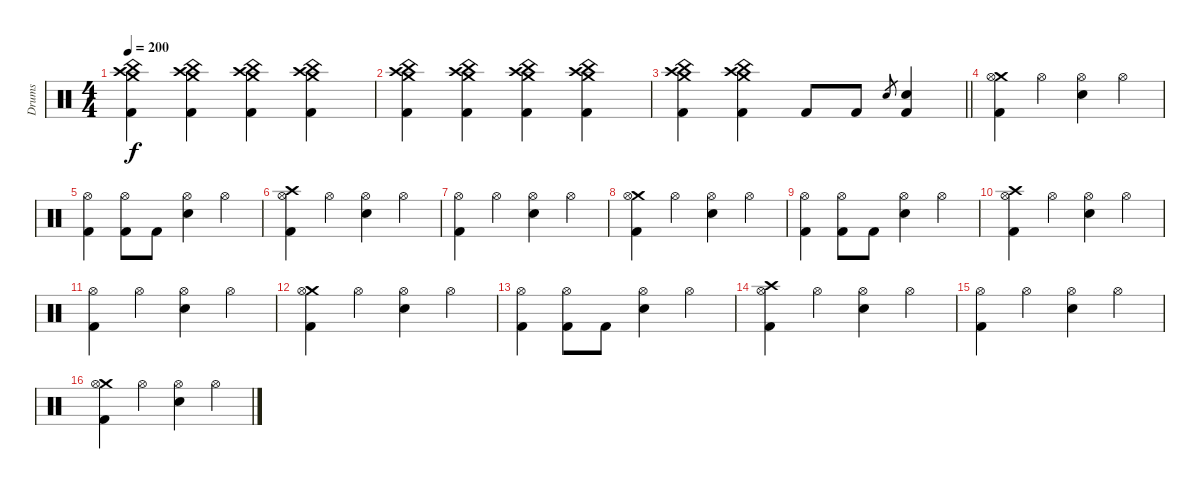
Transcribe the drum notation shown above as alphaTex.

\track ("Drums" "Drums") {instrument percussion}
\staff {score}
\articulation defaults
\ts (4 4)
\tempo 200
\clef neutral
\ks c
("China (hit)" "Crash medium (hit)" "Crash high (hit)" "Kick (hit) 2").4{dy f} ("China (hit)" "Crash medium (hit)" "Crash high (hit)" "Kick (hit) 2").4 ("China (hit)" "Crash medium (hit)" "Crash high (hit)" "Kick (hit) 2").4 ("China (hit)" "Crash medium (hit)" "Crash high (hit)" "Kick (hit) 2").4 |
("China (hit)" "Crash medium (hit)" "Crash high (hit)" "Kick (hit) 2").4 ("China (hit)" "Crash medium (hit)" "Crash high (hit)" "Kick (hit) 2").4 ("China (hit)" "Crash medium (hit)" "Crash high (hit)" "Kick (hit) 2").4 ("China (hit)" "Crash medium (hit)" "Crash high (hit)" "Kick (hit) 2").4 |
\barLineRight lightlight
("China (hit)" "Crash medium (hit)" "Crash high (hit)" "Kick (hit) 2").4 ("China (hit)" "Crash medium (hit)" "Crash high (hit)" "Kick (hit) 2").4 "Kick (hit) 2".8 "Kick (hit) 2".8 "Snare (hit) 2".8{gr} ("Snare (hit) 2" "Kick (hit) 2").4{bd 480} |
("Crash medium (hit)" "Hi-Hat (open)" "Kick (hit) 2").4 "Hi-Hat (open)".4 ("Hi-Hat (open)" "Snare (hit) 2").4 "Hi-Hat (open)".4 |
("Hi-Hat (open)" "Kick (hit) 2").4 ("Hi-Hat (open)" "Kick (hit) 2").8 "Kick (hit) 2".8 ("Hi-Hat (open)" "Snare (hit) 2").4 "Hi-Hat (open)".4 |
("Crash high (hit)" "Hi-Hat (open)" "Kick (hit) 2").4 "Hi-Hat (open)".4 ("Hi-Hat (open)" "Snare (hit) 2").4 "Hi-Hat (open)".4 |
("Hi-Hat (open)" "Kick (hit) 2").4 "Hi-Hat (open)".4 ("Hi-Hat (open)" "Snare (hit) 2").4 "Hi-Hat (open)".4 |
("Crash medium (hit)" "Hi-Hat (open)" "Kick (hit) 2").4 "Hi-Hat (open)".4 ("Hi-Hat (open)" "Snare (hit) 2").4 "Hi-Hat (open)".4 |
("Hi-Hat (open)" "Kick (hit) 2").4 ("Hi-Hat (open)" "Kick (hit) 2").8 "Kick (hit) 2".8 ("Hi-Hat (open)" "Snare (hit) 2").4 "Hi-Hat (open)".4 |
("Crash high (hit)" "Hi-Hat (open)" "Kick (hit) 2").4 "Hi-Hat (open)".4 ("Hi-Hat (open)" "Snare (hit) 2").4 "Hi-Hat (open)".4 |
("Hi-Hat (open)" "Kick (hit) 2").4 "Hi-Hat (open)".4 ("Hi-Hat (open)" "Snare (hit) 2").4 "Hi-Hat (open)".4 |
("Crash medium (hit)" "Hi-Hat (open)" "Kick (hit) 2").4 "Hi-Hat (open)".4 ("Hi-Hat (open)" "Snare (hit) 2").4 "Hi-Hat (open)".4 |
("Hi-Hat (open)" "Kick (hit) 2").4 ("Hi-Hat (open)" "Kick (hit) 2").8 "Kick (hit) 2".8 ("Hi-Hat (open)" "Snare (hit) 2").4 "Hi-Hat (open)".4 |
("Crash high (hit)" "Hi-Hat (open)" "Kick (hit) 2").4 "Hi-Hat (open)".4 ("Hi-Hat (open)" "Snare (hit) 2").4 "Hi-Hat (open)".4 |
("Hi-Hat (open)" "Kick (hit) 2").4 "Hi-Hat (open)".4 ("Hi-Hat (open)" "Snare (hit) 2").4 "Hi-Hat (open)".4 |
("Crash medium (hit)" "Hi-Hat (open)" "Kick (hit) 2").4 "Hi-Hat (open)".4 ("Hi-Hat (open)" "Snare (hit) 2").4 "Hi-Hat (open)".4
